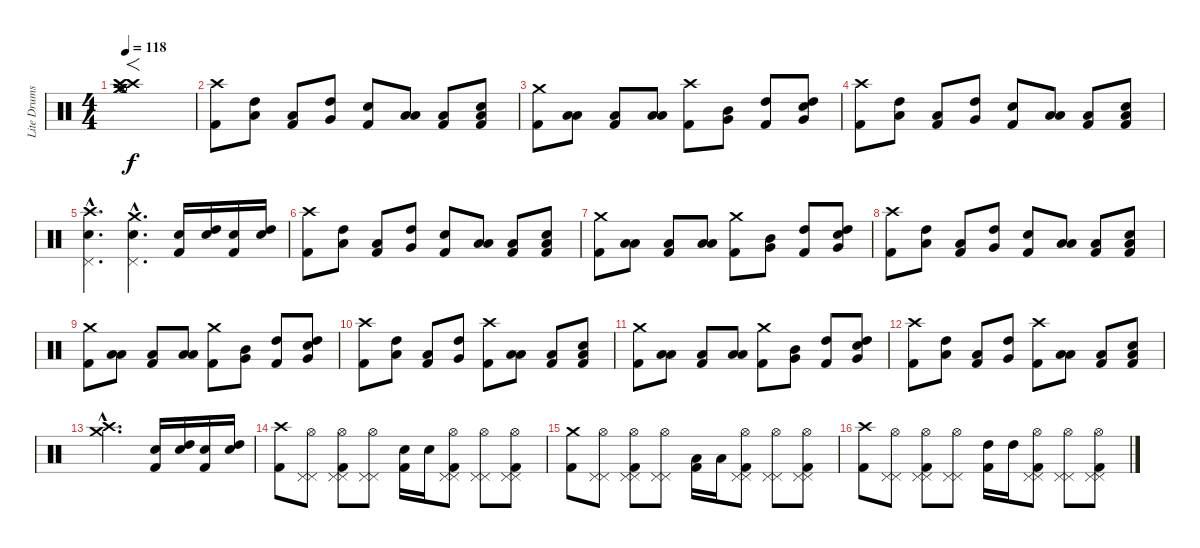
\track ("Lite Drums" "Lite Drums") {instrument percussion}
\staff {score}
\articulation defaults
\ts (4 4)
\tempo 118
\clef neutral
\ks c
("Crash medium (hit)" "Crash high (hit)" "Hi-Hat (open)" "Crash medium (hit)" "Crash high (hit)" "Hi-Hat (open)").1{f dy f} |
("Crash high (hit)" "Kick (hit) 2").8 ("Low Floor Tom (hit)" "High Tom (hit)").8 ("Low Floor Tom (hit)" "Kick (hit) 2").8 ("Very Low Tom (hit)" "High Tom (hit)").8 ("Snare (hit) 2" "Kick (hit) 2").8 ("Low Tom (hit)" "Low Floor Tom (hit)").8 ("Low Tom (hit)" "Kick (hit) 2").8 ("Kick (hit) 2" "Low Tom (hit)" "Snare (hit) 2").8 |
("Crash medium (hit)" "Kick (hit) 2").8 ("Low Tom (hit)" "Low Tom (hit)").8 ("Low Tom (hit)" "Kick (hit) 2").8 ("Low Floor Tom (hit)" "Low Tom (hit)").8 ("Crash high (hit)" "Kick (hit) 2").8 ("Mid Tom (hit)" "Very Low Tom (hit)").8 ("High Tom (hit)" "Kick (hit) 2").8 ("High Tom (hit)" "Snare (hit) 2" "Very Low Tom (hit)").8 |
("Crash high (hit)" "Kick (hit) 2").8 ("Low Floor Tom (hit)" "High Tom (hit)").8 ("Low Floor Tom (hit)" "Kick (hit) 2").8 ("Very Low Tom (hit)" "High Tom (hit)").8 ("Snare (hit) 2" "Kick (hit) 2").8 ("Low Tom (hit)" "Low Floor Tom (hit)").8 ("Low Tom (hit)" "Kick (hit) 2").8 ("Kick (hit) 2" "Low Tom (hit)" "Snare (hit) 2").8 |
("Crash high (hit)"{hac} "Snare (hit) 2"{hac} "Pedal Hi-Hat (hit)"{hac}).4{d} ("Crash medium (hit)"{hac} "Snare (hit) 2"{hac} "Pedal Hi-Hat (hit)"{hac}).4{d} ("Snare (hit) 2" "Kick (hit) 2").16 ("High Tom (hit)" "Snare (hit) 2").16 ("Snare (hit) 2" "Kick (hit) 2").16 ("High Tom (hit)" "Snare (hit) 2").16 |
("Crash high (hit)" "Kick (hit) 2").8 ("Low Floor Tom (hit)" "High Tom (hit)").8 ("Low Floor Tom (hit)" "Kick (hit) 2").8 ("Very Low Tom (hit)" "High Tom (hit)").8 ("Snare (hit) 2" "Kick (hit) 2").8 ("Low Tom (hit)" "Low Floor Tom (hit)").8 ("Low Tom (hit)" "Kick (hit) 2").8 ("Kick (hit) 2" "Low Tom (hit)" "Snare (hit) 2").8 |
("Crash medium (hit)" "Kick (hit) 2").8 ("Low Tom (hit)" "Low Tom (hit)").8 ("Low Tom (hit)" "Kick (hit) 2").8 ("Low Floor Tom (hit)" "Low Tom (hit)").8 ("Crash medium (hit)" "Kick (hit) 2").8 ("Mid Tom (hit)" "Very Low Tom (hit)").8 ("High Tom (hit)" "Kick (hit) 2").8 ("High Tom (hit)" "Snare (hit) 2" "Very Low Tom (hit)").8 |
("Crash high (hit)" "Kick (hit) 2").8 ("Low Floor Tom (hit)" "High Tom (hit)").8 ("Low Floor Tom (hit)" "Kick (hit) 2").8 ("Very Low Tom (hit)" "High Tom (hit)").8 ("Snare (hit) 2" "Kick (hit) 2").8 ("Low Tom (hit)" "Low Floor Tom (hit)").8 ("Low Tom (hit)" "Kick (hit) 2").8 ("Kick (hit) 2" "Low Tom (hit)" "Snare (hit) 2").8 |
("Crash medium (hit)" "Kick (hit) 2").8 ("Low Tom (hit)" "Low Tom (hit)").8 ("Low Tom (hit)" "Kick (hit) 2").8 ("Low Floor Tom (hit)" "Low Tom (hit)").8 ("Crash medium (hit)" "Kick (hit) 2").8 ("Mid Tom (hit)" "Very Low Tom (hit)").8 ("High Tom (hit)" "Kick (hit) 2").8 ("High Tom (hit)" "Snare (hit) 2" "Very Low Tom (hit)").8 |
("Crash high (hit)" "Kick (hit) 2").8 ("Low Floor Tom (hit)" "High Tom (hit)").8 ("Low Floor Tom (hit)" "Kick (hit) 2").8 ("Very Low Tom (hit)" "High Tom (hit)").8 ("Crash high (hit)" "Kick (hit) 2").8 ("Low Tom (hit)" "Low Floor Tom (hit)").8 ("Low Tom (hit)" "Kick (hit) 2").8 ("Kick (hit) 2" "Low Tom (hit)" "Snare (hit) 2").8 |
("Crash medium (hit)" "Kick (hit) 2").8 ("Low Tom (hit)" "Low Tom (hit)").8 ("Low Tom (hit)" "Kick (hit) 2").8 ("Low Floor Tom (hit)" "Low Tom (hit)").8 ("Crash medium (hit)" "Kick (hit) 2").8 ("Mid Tom (hit)" "Very Low Tom (hit)").8 ("High Tom (hit)" "Kick (hit) 2").8 ("High Tom (hit)" "Snare (hit) 2" "Very Low Tom (hit)").8 |
("Crash high (hit)" "Kick (hit) 2").8 ("Low Floor Tom (hit)" "High Tom (hit)").8 ("Low Floor Tom (hit)" "Kick (hit) 2").8 ("Very Low Tom (hit)" "High Tom (hit)").8 ("Crash high (hit)" "Kick (hit) 2").8 ("Low Tom (hit)" "Low Floor Tom (hit)").8 ("Low Tom (hit)" "Kick (hit) 2").8 ("Kick (hit) 2" "Low Tom (hit)" "Snare (hit) 2").8 |
("Crash high (hit)"{hac} "Crash medium (hit)"{hac}).2{d} ("Snare (hit) 2" "Kick (hit) 2").16 ("High Tom (hit)" "Snare (hit) 2").16 ("Snare (hit) 2" "Kick (hit) 2").16 ("High Tom (hit)" "Snare (hit) 2").16 |
("Crash high (hit)" "Kick (hit) 2").8 ("Pedal Hi-Hat (hit)" "Hi-Hat (open)" "Pedal Hi-Hat (hit)").8 ("Pedal Hi-Hat (hit)" "Hi-Hat (open)" "Pedal Hi-Hat (hit)" "Kick (hit) 2").8 ("Pedal Hi-Hat (hit)" "Hi-Hat (open)" "Pedal Hi-Hat (hit)").8 ("Snare (hit) 2" "Kick (hit) 2").16 "Snare (hit) 2".16 ("Pedal Hi-Hat (hit)" "Hi-Hat (open)" "Pedal Hi-Hat (hit)" "Kick (hit) 2").8 ("Pedal Hi-Hat (hit)" "Hi-Hat (open)" "Pedal Hi-Hat (hit)").8 ("Pedal Hi-Hat (hit)" "Hi-Hat (open)" "Pedal Hi-Hat (hit)" "Kick (hit) 2").8 |
("Crash medium (hit)" "Kick (hit) 2").8 ("Pedal Hi-Hat (hit)" "Hi-Hat (open)" "Pedal Hi-Hat (hit)").8 ("Pedal Hi-Hat (hit)" "Hi-Hat (open)" "Pedal Hi-Hat (hit)" "Kick (hit) 2").8 ("Pedal Hi-Hat (hit)" "Hi-Hat (open)" "Pedal Hi-Hat (hit)").8 ("Low Tom (hit)" "Kick (hit) 2").16 "Low Tom (hit)".16 ("Pedal Hi-Hat (hit)" "Hi-Hat (open)" "Pedal Hi-Hat (hit)" "Kick (hit) 2").8 ("Pedal Hi-Hat (hit)" "Hi-Hat (open)" "Pedal Hi-Hat (hit)").8 ("Pedal Hi-Hat (hit)" "Hi-Hat (open)" "Pedal Hi-Hat (hit)" "Kick (hit) 2").8 |
("Crash high (hit)" "Kick (hit) 2").8 ("Pedal Hi-Hat (hit)" "Hi-Hat (open)" "Pedal Hi-Hat (hit)").8 ("Pedal Hi-Hat (hit)" "Hi-Hat (open)" "Pedal Hi-Hat (hit)" "Kick (hit) 2").8 ("Pedal Hi-Hat (hit)" "Hi-Hat (open)" "Pedal Hi-Hat (hit)").8 ("High Tom (hit)" "Kick (hit) 2").16 "High Tom (hit)".16 ("Pedal Hi-Hat (hit)" "Hi-Hat (open)" "Pedal Hi-Hat (hit)" "Kick (hit) 2").8 ("Pedal Hi-Hat (hit)" "Hi-Hat (open)" "Pedal Hi-Hat (hit)").8 ("Pedal Hi-Hat (hit)" "Hi-Hat (open)" "Pedal Hi-Hat (hit)" "Kick (hit) 2").8
